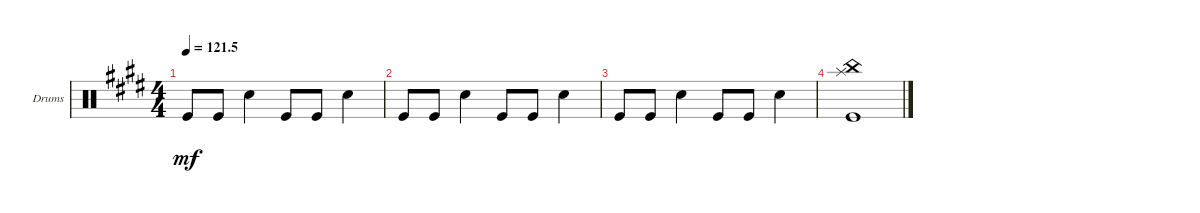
\defaultSystemsLayout 4
\bracketExtendMode groupsimilarinstruments
\firstSystemTrackNameOrientation horizontal
\otherSystemsTrackNameOrientation horizontal
\track ("Drumkit" "Drums") {solo instrument percussion}
\staff {score}
\articulation defaults
\ts (4 4)
\tempo
121.5
\accidentals auto
\clef neutral
\ottava regular
\simile none
\ks e "Kick (hit)".8{dy mf} "Kick (hit)".8 "Snare (hit) 2".4 "Kick (hit)".8 "Kick (hit)".8 "Snare (hit) 2".4
|
"Kick (hit)".8 "Kick (hit)".8 "Snare (hit) 2".4 "Kick (hit)".8 "Kick (hit)".8 "Snare (hit) 2".4 |
"Kick (hit)".8 "Kick (hit)".8 "Snare (hit) 2".4 "Kick (hit)".8 "Kick (hit)".8 "Snare (hit) 2".4 |
("Kick (hit)" "Splash (hit)" "China (hit)").1
